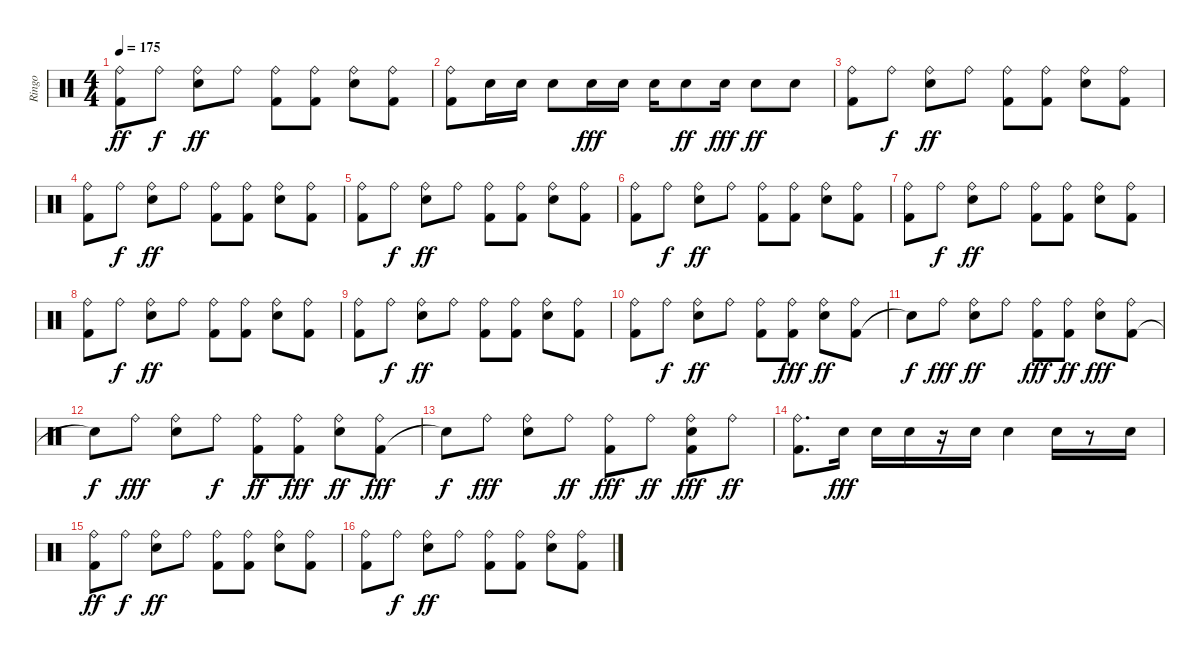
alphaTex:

\track ("Ringo" "Ringo") {instrument percussion}
\staff {score}
\articulation defaults
\ts (4 4)
\tempo 175
\clef neutral
\ks c
("Kick (hit) 2" "Ride (bell)").8{dy ff} "Ride (bell)".8{dy f} ("Snare (hit) 2" "Ride (bell)").8{dy ff} "Ride (bell)".8 ("Kick (hit) 2" "Ride (bell)").8 ("Ride (bell)" "Kick (hit) 2").8 ("Snare (hit) 2" "Ride (bell)").8 ("Ride (bell)" "Kick (hit) 2").8 |
("Kick (hit) 2" "Ride (bell)").8 "Snare (hit) 2".16 "Snare (hit) 2".16 "Snare (hit) 2".8 "Snare (hit) 2".16{dy fff} "Snare (hit) 2".16 "Snare (hit) 2".16 "Snare (hit) 2".8{dy ff} "Snare (hit) 2".16{dy fff} "Snare (hit) 2".8{dy ff} "Snare (hit) 2".8 |
("Kick (hit) 2" "Ride (bell)").8 "Ride (bell)".8{dy f} ("Snare (hit) 2" "Ride (bell)").8{dy ff} "Ride (bell)".8 ("Kick (hit) 2" "Ride (bell)").8 ("Ride (bell)" "Kick (hit) 2").8 ("Snare (hit) 2" "Ride (bell)").8 ("Ride (bell)" "Kick (hit) 2").8 |
("Kick (hit) 2" "Ride (bell)").8 "Ride (bell)".8{dy f} ("Snare (hit) 2" "Ride (bell)").8{dy ff} "Ride (bell)".8 ("Kick (hit) 2" "Ride (bell)").8 ("Ride (bell)" "Kick (hit) 2").8 ("Snare (hit) 2" "Ride (bell)").8 ("Ride (bell)" "Kick (hit) 2").8 |
("Kick (hit) 2" "Ride (bell)").8 "Ride (bell)".8{dy f} ("Snare (hit) 2" "Ride (bell)").8{dy ff} "Ride (bell)".8 ("Kick (hit) 2" "Ride (bell)").8 ("Ride (bell)" "Kick (hit) 2").8 ("Snare (hit) 2" "Ride (bell)").8 ("Ride (bell)" "Kick (hit) 2").8 |
("Kick (hit) 2" "Ride (bell)").8 "Ride (bell)".8{dy f} ("Snare (hit) 2" "Ride (bell)").8{dy ff} "Ride (bell)".8 ("Kick (hit) 2" "Ride (bell)").8 ("Ride (bell)" "Kick (hit) 2").8 ("Snare (hit) 2" "Ride (bell)").8 ("Ride (bell)" "Kick (hit) 2").8 |
("Kick (hit) 2" "Ride (bell)").8 "Ride (bell)".8{dy f} ("Snare (hit) 2" "Ride (bell)").8{dy ff} "Ride (bell)".8 ("Kick (hit) 2" "Ride (bell)").8 ("Ride (bell)" "Kick (hit) 2").8 ("Snare (hit) 2" "Ride (bell)").8 ("Ride (bell)" "Kick (hit) 2").8 |
("Kick (hit) 2" "Ride (bell)").8 "Ride (bell)".8{dy f} ("Snare (hit) 2" "Ride (bell)").8{dy ff} "Ride (bell)".8 ("Kick (hit) 2" "Ride (bell)").8 ("Ride (bell)" "Kick (hit) 2").8 ("Snare (hit) 2" "Ride (bell)").8 ("Ride (bell)" "Kick (hit) 2").8 |
("Kick (hit) 2" "Ride (bell)").8 "Ride (bell)".8{dy f} ("Snare (hit) 2" "Ride (bell)").8{dy ff} "Ride (bell)".8 ("Kick (hit) 2" "Ride (bell)").8 ("Ride (bell)" "Kick (hit) 2").8 ("Snare (hit) 2" "Ride (bell)").8 ("Ride (bell)" "Kick (hit) 2").8 |
("Kick (hit) 2" "Ride (bell)").8 "Ride (bell)".8{dy f} ("Snare (hit) 2" "Ride (bell)").8{dy ff} "Ride (bell)".8 ("Kick (hit) 2" "Ride (bell)").8 ("Ride (bell)" "Kick (hit) 2").8{dy fff} ("Snare (hit) 2" "Ride (bell)").8{dy ff} ("Kick (hit) 2" "Ride (bell)").8 |
"Snare (hit)"{t}.8{dy f} "Ride (bell)".8{dy fff} ("Snare (hit) 2" "Ride (bell)").8{dy ff} "Ride (bell)".8 ("Ride (bell)" "Kick (hit) 2").8{dy fff} ("Ride (bell)" "Kick (hit) 2").8{dy ff} ("Ride (bell)" "Snare (hit) 2").8{dy fff} ("Kick (hit) 2" "Ride (bell)").8 |
"Snare (hit)"{t}.8{dy f} "Ride (bell)".8{dy fff} ("Ride (bell)" "Snare (hit) 2").8 "Ride (bell)".8{dy f} ("Kick (hit) 2" "Ride (bell)").8{dy ff} ("Ride (bell)" "Kick (hit) 2").8{dy fff} ("Snare (hit) 2" "Ride (bell)").8{dy ff} ("Kick (hit) 2" "Ride (bell)").8{dy fff} |
"Snare (hit)"{t}.8{dy f} "Ride (bell)".8{dy fff} ("Ride (bell)" "Snare (hit) 2").8 "Ride (bell)".8{dy ff} ("Ride (bell)" "Kick (hit) 2").8{dy fff} "Ride (bell)".8{dy ff} ("Ride (bell)" "Snare (hit) 2" "Kick (hit) 2").8{dy fff} "Ride (bell)".8{dy ff} |
("Kick (hit) 2" "Ride (bell)").8{d} "Snare (hit) 2".16{dy fff} "Snare (hit) 2".16 "Snare (hit) 2".16 r.16 "Snare (hit) 2".16 "Snare (hit) 2".4 "Snare (hit) 2".16 r.8 "Snare (hit) 2".16 |
("Kick (hit) 2" "Ride (bell)").8{dy ff volume 11} "Ride (bell)".8{dy f} ("Snare (hit) 2" "Ride (bell)").8{dy ff volume 11} "Ride (bell)".8{volume 11} ("Kick (hit) 2" "Ride (bell)").8{volume 11} ("Ride (bell)" "Kick (hit) 2").8{volume 11} ("Snare (hit) 2" "Ride (bell)").8{volume 11} ("Ride (bell)" "Kick (hit) 2").8{volume 10} |
("Kick (hit) 2" "Ride (bell)").8 "Ride (bell)".8{dy f volume 10} ("Snare (hit) 2" "Ride (bell)").8{dy ff volume 10} "Ride (bell)".8{volume 10} ("Kick (hit) 2" "Ride (bell)").8{volume 10} ("Ride (bell)" "Kick (hit) 2").8{volume 10} ("Snare (hit) 2" "Ride (bell)").8{volume 10} ("Ride (bell)" "Kick (hit) 2").8{volume 10}
